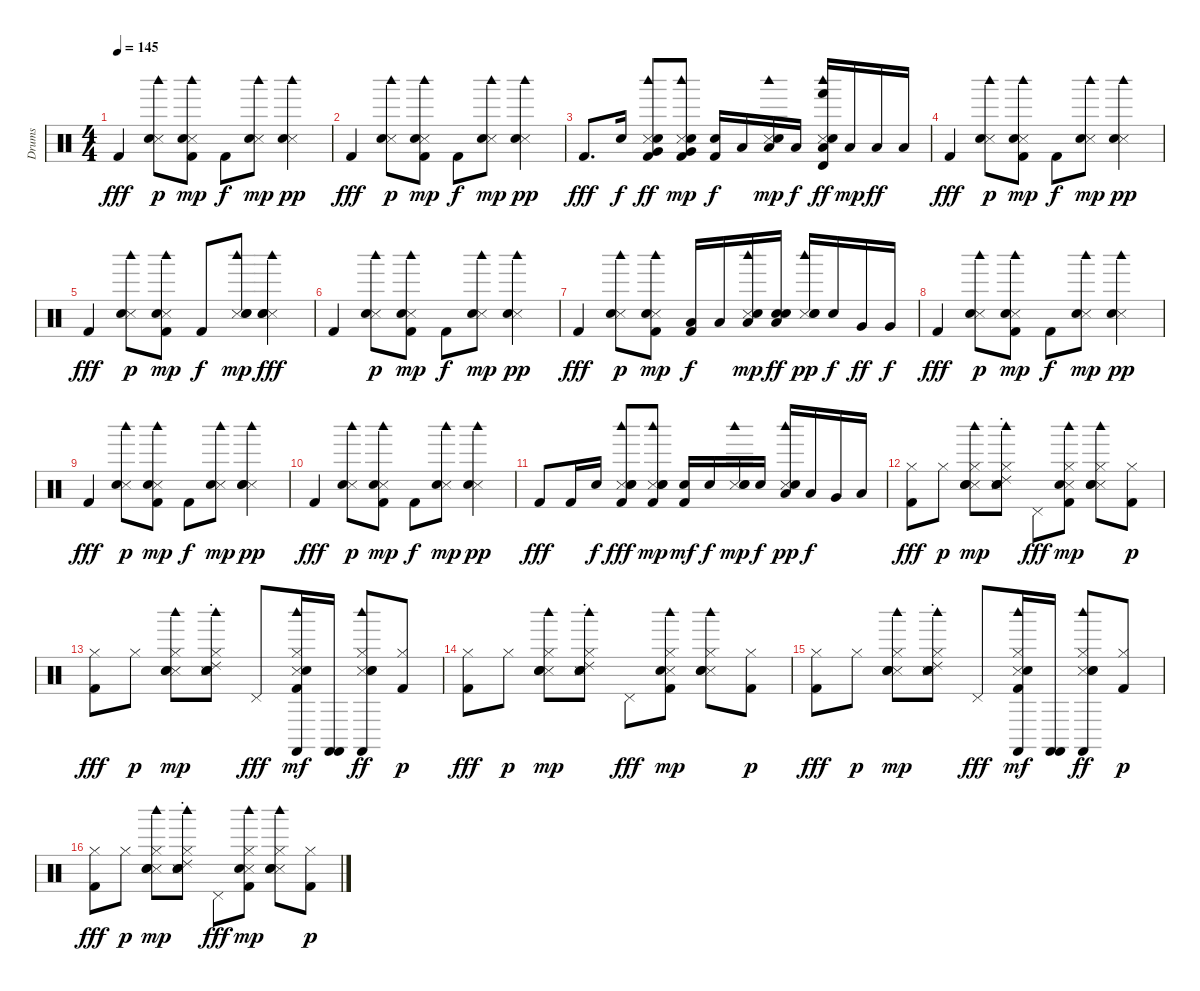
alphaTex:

\track ("Drums" "Drums") {instrument percussion}
\staff {score}
\articulation defaults
\ts (4 4)
\tempo 145
\clef neutral
\ks c "Kick (hit) 2".4{dy fff}
("Snare (side stick) 3" "Hand Clap (hit)" "Woodblock high (hit)").8{dy p} ("Kick (hit) 2" "Snare (side stick) 3" "Hand Clap (hit)" "Woodblock high (hit)").8{dy mp} "Kick (hit) 2".8{dy f} ("Snare (side stick) 3" "Hand Clap (hit)" "Woodblock high (hit)").8{dy mp} ("Snare (side stick) 3" "Hand Clap (hit)" "Woodblock high (hit)").4{dy pp} |
"Kick (hit) 2".4{dy fff} ("Snare (side stick) 3" "Hand Clap (hit)" "Woodblock high (hit)").8{dy p} ("Kick (hit) 2" "Snare (side stick) 3" "Hand Clap (hit)" "Woodblock high (hit)").8{dy mp} "Kick (hit) 2".8{dy f} ("Snare (side stick) 3" "Hand Clap (hit)" "Woodblock high (hit)").8{dy mp} ("Snare (side stick) 3" "Hand Clap (hit)" "Woodblock high (hit)").4{dy pp} |
"Kick (hit) 2".8{d dy fff} "Electric Snare (hit)".16{dy f} ("Kick (hit) 2" "Snare (side stick) 3" "Hand Clap (hit)" "Very Low Tom (hit)" "Woodblock high (hit)").8{dy ff} ("Kick (hit) 2" "Snare (side stick) 3" "Hand Clap (hit)" "Very Low Tom (hit)" "Woodblock high (hit)").8{dy mp} ("Kick (hit) 2" "Electric Snare (hit)").16{dy f} "Low Floor Tom (hit)".16 ("Snare (side stick) 3" "Hand Clap (hit)" "Low Floor Tom (hit)" "Woodblock high (hit)").16{dy mp} "Low Floor Tom (hit)".16{dy f} ("Snare (side stick) 3" "Hand Clap (hit)" "Low Floor Tom (hit)" "Hand (hit)" "Timbale high (hit)" "Woodblock high (hit)").16{dy ff} "Low Floor Tom (hit)".16{dy mp} "Low Floor Tom (hit)".16{dy ff} "Low Floor Tom (hit)".16 |
"Kick (hit) 2".4{dy fff} ("Snare (side stick) 3" "Hand Clap (hit)" "Woodblock high (hit)").8{dy p} ("Kick (hit) 2" "Snare (side stick) 3" "Hand Clap (hit)" "Woodblock high (hit)").8{dy mp} "Kick (hit) 2".8{dy f} ("Snare (side stick) 3" "Hand Clap (hit)" "Woodblock high (hit)").8{dy mp} ("Snare (side stick) 3" "Hand Clap (hit)" "Woodblock high (hit)").4{dy pp} |
"Kick (hit) 2".4{dy fff} ("Snare (side stick) 3" "Hand Clap (hit)" "Woodblock high (hit)").8{dy p} ("Kick (hit) 2" "Snare (side stick) 3" "Hand Clap (hit)" "Woodblock high (hit)").8{dy mp} "Kick (hit) 2".8{dy f} ("Snare (side stick) 3" "Hand Clap (hit)" "Electric Snare (hit)" "Woodblock high (hit)").8{dy mp} ("Snare (side stick) 3" "Hand Clap (hit)" "Electric Snare (hit)" "Woodblock high (hit)").4{dy fff} |
"Kick (hit) 2".4 ("Snare (side stick) 3" "Hand Clap (hit)" "Woodblock high (hit)").8{dy p} ("Kick (hit) 2" "Snare (side stick) 3" "Hand Clap (hit)" "Woodblock high (hit)").8{dy mp} "Kick (hit) 2".8{dy f} ("Snare (side stick) 3" "Hand Clap (hit)" "Woodblock high (hit)").8{dy mp} ("Snare (side stick) 3" "Hand Clap (hit)" "Woodblock high (hit)").4{dy pp} |
"Kick (hit) 2".4{dy fff} ("Snare (side stick) 3" "Hand Clap (hit)" "Woodblock high (hit)").8{dy p} ("Kick (hit) 2" "Snare (side stick) 3" "Hand Clap (hit)" "Woodblock high (hit)").8{dy mp} ("Kick (hit) 2" "Low Tom (hit)").16{dy f} "Low Tom (hit)".16 ("Snare (side stick) 3" "Hand Clap (hit)" "Low Tom (hit)" "Woodblock high (hit)").16{dy mp} ("Electric Snare (hit)" "Low Tom (hit)" "Electric Snare (hit)").16{dy ff} ("Snare (side stick) 3" "Hand Clap (hit)" "Electric Snare (hit)" "Woodblock high (hit)").16{dy pp} "Electric Snare (hit)".16{dy f} "Very Low Tom (hit)".16{dy ff} "Very Low Tom (hit)".16{dy f} |
"Kick (hit) 2".4{dy fff} ("Snare (side stick) 3" "Hand Clap (hit)" "Woodblock high (hit)").8{dy p} ("Kick (hit) 2" "Snare (side stick) 3" "Hand Clap (hit)" "Woodblock high (hit)").8{dy mp} "Kick (hit) 2".8{dy f} ("Snare (side stick) 3" "Hand Clap (hit)" "Woodblock high (hit)").8{dy mp} ("Snare (side stick) 3" "Hand Clap (hit)" "Woodblock high (hit)").4{dy pp} |
"Kick (hit) 2".4{dy fff} ("Snare (side stick) 3" "Hand Clap (hit)" "Woodblock high (hit)").8{dy p} ("Kick (hit) 2" "Snare (side stick) 3" "Hand Clap (hit)" "Woodblock high (hit)").8{dy mp} "Kick (hit) 2".8{dy f} ("Snare (side stick) 3" "Hand Clap (hit)" "Woodblock high (hit)").8{dy mp} ("Snare (side stick) 3" "Hand Clap (hit)" "Electric Snare (hit)" "Woodblock high (hit)").4{dy pp} |
"Kick (hit) 2".4{dy fff} ("Snare (side stick) 3" "Hand Clap (hit)" "Woodblock high (hit)").8{dy p} ("Kick (hit) 2" "Snare (side stick) 3" "Hand Clap (hit)" "Woodblock high (hit)").8{dy mp} "Kick (hit) 2".8{dy f} ("Snare (side stick) 3" "Hand Clap (hit)" "Woodblock high (hit)").8{dy mp} ("Snare (side stick) 3" "Hand Clap (hit)" "Woodblock high (hit)").4{dy pp} |
"Kick (hit) 2".8{dy fff} "Kick (hit) 2".16 "Electric Snare (hit)".16{dy f} ("Kick (hit) 2" "Snare (side stick) 3" "Hand Clap (hit)" "Electric Snare (hit)" "Woodblock high (hit)").8{dy fff} ("Kick (hit) 2" "Snare (side stick) 3" "Hand Clap (hit)" "Electric Snare (hit)" "Woodblock high (hit)").8{dy mp} ("Kick (hit) 2" "Electric Snare (hit)").16{dy mf} "Electric Snare (hit)".16{dy f} ("Snare (side stick) 3" "Hand Clap (hit)" "Electric Snare (hit)" "Woodblock high (hit)").16{dy mp} "Electric Snare (hit)".16{dy f} ("Snare (side stick) 3" "Hand Clap (hit)" "Low Tom (hit)" "Woodblock high (hit)").16{dy pp} "Low Tom (hit)".16{dy f} "Very Low Tom (hit)".16 "Low Floor Tom (hit)".16 |
("Kick (hit) 2" "Hi-Hat (closed)").8{dy fff} "Hi-Hat (closed)".8{dy p} ("Snare (side stick) 3" "Hand Clap (hit)" "Electric Snare (hit)" "Hi-Hat (closed)" "Woodblock high (hit)").8{dy mp} ("Ride (choke) 2" "Snare (side stick) 3" "Hand Clap (hit)" "Electric Snare (hit)" "Hi-Hat (closed)" "Woodblock high (hit)").8 "Pedal Hi-Hat (hit)".8{dy fff} ("Kick (hit) 2" "Snare (side stick) 3" "Hand Clap (hit)" "Hi-Hat (closed)" "Woodblock high (hit)").8{dy mp} ("Snare (side stick) 3" "Hand Clap (hit)" "Electric Snare (hit)" "Hi-Hat (closed)" "Woodblock high (hit)").8 ("Kick (hit) 2" "Hi-Hat (closed)").8{dy p} |
("Kick (hit) 2" "Hi-Hat (closed)").8{dy fff} "Hi-Hat (closed)".8{dy p} ("Snare (side stick) 3" "Hand Clap (hit)" "Electric Snare (hit)" "Hi-Hat (closed)" "Woodblock high (hit)").8{dy mp} ("Ride (choke) 2" "Snare (side stick) 3" "Hand Clap (hit)" "Electric Snare (hit)" "Hi-Hat (closed)" "Woodblock high (hit)").8 "Pedal Hi-Hat (hit)".8{dy fff} ("Kick (hit) 2" "Snare (side stick) 3" "Hand Clap (hit)" "Hi-Hat (closed)" "Woodblock high (hit)" "Castanets (hit)").16{dy mf} ("Castanets (hit)" "Castanets (hit)").16 ("Snare (side stick) 3" "Hand Clap (hit)" "Electric Snare (hit)" "Hi-Hat (closed)" "Woodblock high (hit)" "Castanets (hit)").8{dy ff} ("Kick (hit) 2" "Hi-Hat (closed)").8{dy p} |
("Kick (hit) 2" "Hi-Hat (closed)").8{dy fff} "Hi-Hat (closed)".8{dy p} ("Snare (side stick) 3" "Hand Clap (hit)" "Electric Snare (hit)" "Hi-Hat (closed)" "Woodblock high (hit)").8{dy mp} ("Ride (choke) 2" "Snare (side stick) 3" "Hand Clap (hit)" "Electric Snare (hit)" "Hi-Hat (closed)" "Woodblock high (hit)").8 "Pedal Hi-Hat (hit)".8{dy fff} ("Kick (hit) 2" "Snare (side stick) 3" "Hand Clap (hit)" "Hi-Hat (closed)" "Woodblock high (hit)").8{dy mp} ("Snare (side stick) 3" "Hand Clap (hit)" "Electric Snare (hit)" "Hi-Hat (closed)" "Woodblock high (hit)").8 ("Kick (hit) 2" "Hi-Hat (closed)").8{dy p} |
("Kick (hit) 2" "Hi-Hat (closed)").8{dy fff} "Hi-Hat (closed)".8{dy p} ("Snare (side stick) 3" "Hand Clap (hit)" "Electric Snare (hit)" "Hi-Hat (closed)" "Woodblock high (hit)").8{dy mp} ("Ride (choke) 2" "Snare (side stick) 3" "Hand Clap (hit)" "Electric Snare (hit)" "Hi-Hat (closed)" "Woodblock high (hit)").8 "Pedal Hi-Hat (hit)".8{dy fff} ("Kick (hit) 2" "Snare (side stick) 3" "Hand Clap (hit)" "Hi-Hat (closed)" "Woodblock high (hit)" "Castanets (hit)").16{dy mf} ("Castanets (hit)" "Castanets (hit)").16 ("Snare (side stick) 3" "Hand Clap (hit)" "Electric Snare (hit)" "Hi-Hat (closed)" "Woodblock high (hit)" "Castanets (hit)").8{dy ff} ("Kick (hit) 2" "Hi-Hat (closed)").8{dy p} |
("Kick (hit) 2" "Hi-Hat (closed)").8{dy fff} "Hi-Hat (closed)".8{dy p} ("Snare (side stick) 3" "Hand Clap (hit)" "Electric Snare (hit)" "Hi-Hat (closed)" "Woodblock high (hit)").8{dy mp} ("Ride (choke) 2" "Snare (side stick) 3" "Hand Clap (hit)" "Electric Snare (hit)" "Hi-Hat (closed)" "Woodblock high (hit)").8 "Pedal Hi-Hat (hit)".8{dy fff} ("Kick (hit) 2" "Snare (side stick) 3" "Hand Clap (hit)" "Hi-Hat (closed)" "Woodblock high (hit)").8{dy mp} ("Snare (side stick) 3" "Hand Clap (hit)" "Electric Snare (hit)" "Hi-Hat (closed)" "Woodblock high (hit)").8 ("Kick (hit) 2" "Hi-Hat (closed)").8{dy p}
